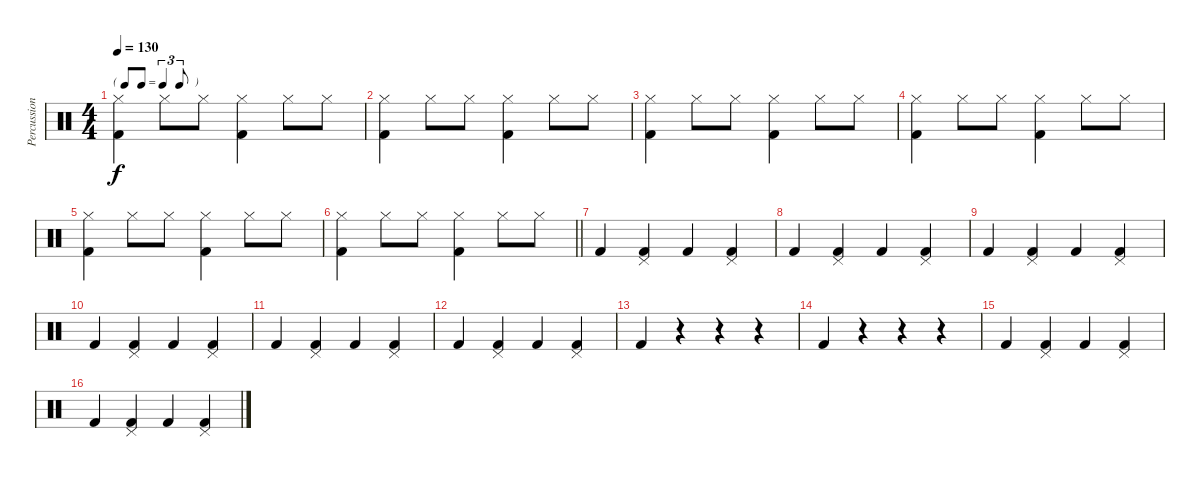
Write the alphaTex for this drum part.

\track ("Percussion" "Percussion") {instrument percussion}
\staff {score}
\articulation defaults
\ts (4 4)
\tf triplet8th
\tempo 130
\clef neutral
\ks c
("Hi-Hat (closed)" "Kick (hit) 2").4{dy f} "Hi-Hat (closed)".8 "Hi-Hat (closed)".8 ("Hi-Hat (closed)" "Kick (hit) 2").4 "Hi-Hat (closed)".8 "Hi-Hat (closed)".8 |
("Hi-Hat (closed)" "Kick (hit) 2").4 "Hi-Hat (closed)".8 "Hi-Hat (closed)".8 ("Hi-Hat (closed)" "Kick (hit) 2").4 "Hi-Hat (closed)".8 "Hi-Hat (closed)".8 |
("Hi-Hat (closed)" "Kick (hit) 2").4 "Hi-Hat (closed)".8 "Hi-Hat (closed)".8 ("Hi-Hat (closed)" "Kick (hit) 2").4 "Hi-Hat (closed)".8 "Hi-Hat (closed)".8 |
("Hi-Hat (closed)" "Kick (hit) 2").4 "Hi-Hat (closed)".8 "Hi-Hat (closed)".8 ("Hi-Hat (closed)" "Kick (hit) 2").4 "Hi-Hat (closed)".8 "Hi-Hat (closed)".8 |
("Hi-Hat (closed)" "Kick (hit) 2").4 "Hi-Hat (closed)".8 "Hi-Hat (closed)".8 ("Hi-Hat (closed)" "Kick (hit) 2").4 "Hi-Hat (closed)".8 "Hi-Hat (closed)".8 |
\barLineRight lightlight
("Hi-Hat (closed)" "Kick (hit) 2").4 "Hi-Hat (closed)".8 "Hi-Hat (closed)".8 ("Hi-Hat (closed)" "Kick (hit) 2").4 "Hi-Hat (closed)".8 "Hi-Hat (closed)".8 |
"Kick (hit) 2".4 ("Pedal Hi-Hat (hit)" "Kick (hit) 2").4 "Kick (hit) 2".4 ("Pedal Hi-Hat (hit)" "Kick (hit) 2").4 |
"Kick (hit) 2".4 ("Pedal Hi-Hat (hit)" "Kick (hit) 2").4 "Kick (hit) 2".4 ("Pedal Hi-Hat (hit)" "Kick (hit) 2").4 |
"Kick (hit) 2".4 ("Pedal Hi-Hat (hit)" "Kick (hit) 2").4 "Kick (hit) 2".4 ("Pedal Hi-Hat (hit)" "Kick (hit) 2").4 |
"Kick (hit) 2".4 ("Pedal Hi-Hat (hit)" "Kick (hit) 2").4 "Kick (hit) 2".4 ("Pedal Hi-Hat (hit)" "Kick (hit) 2").4 |
"Kick (hit) 2".4 ("Pedal Hi-Hat (hit)" "Kick (hit) 2").4 "Kick (hit) 2".4 ("Pedal Hi-Hat (hit)" "Kick (hit) 2").4 |
"Kick (hit) 2".4 ("Pedal Hi-Hat (hit)" "Kick (hit) 2").4 "Kick (hit) 2".4 ("Pedal Hi-Hat (hit)" "Kick (hit) 2").4 |
"Kick (hit) 2".4 r.4 r.4 r.4 |
"Kick (hit) 2".4 r.4 r.4 r.4 |
"Kick (hit) 2".4 ("Pedal Hi-Hat (hit)" "Kick (hit) 2").4 "Kick (hit) 2".4 ("Pedal Hi-Hat (hit)" "Kick (hit) 2").4 |
"Kick (hit) 2".4 ("Pedal Hi-Hat (hit)" "Kick (hit) 2").4 "Kick (hit) 2".4 ("Pedal Hi-Hat (hit)" "Kick (hit) 2").4
